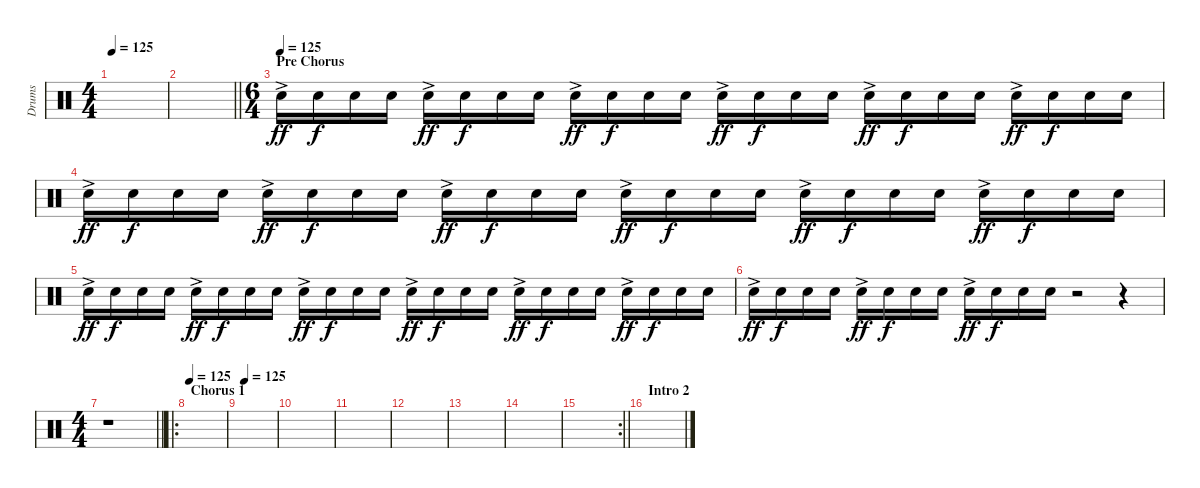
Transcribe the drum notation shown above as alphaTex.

\track ("Drums" "Drums") {instrument percussion}
\staff {score}
\articulation defaults
\ts (4 4)
\tempo 125
\clef neutral
\ks c
|
\barLineRight lightlight
|
\ts (6 4)
\section ("" "Pre Chorus")
\tempo (125)
"Electric Snare (hit)"{ac}.16{dy ff} "Electric Snare (hit)".16{dy f} "Electric Snare (hit)".16 "Electric Snare (hit)".16 "Electric Snare (hit)"{ac}.16{dy ff} "Electric Snare (hit)".16{dy f} "Electric Snare (hit)".16 "Electric Snare (hit)".16 "Electric Snare (hit)"{ac}.16{dy ff} "Electric Snare (hit)".16{dy f} "Electric Snare (hit)".16 "Electric Snare (hit)".16 "Electric Snare (hit)"{ac}.16{dy ff} "Electric Snare (hit)".16{dy f} "Electric Snare (hit)".16 "Electric Snare (hit)".16 "Electric Snare (hit)"{ac}.16{dy ff} "Electric Snare (hit)".16{dy f} "Electric Snare (hit)".16 "Electric Snare (hit)".16 "Electric Snare (hit)"{ac}.16{dy ff} "Electric Snare (hit)".16{dy f} "Electric Snare (hit)".16 "Electric Snare (hit)".16 |
"Electric Snare (hit)"{ac}.16{dy ff} "Electric Snare (hit)".16{dy f} "Electric Snare (hit)".16 "Electric Snare (hit)".16 "Electric Snare (hit)"{ac}.16{dy ff} "Electric Snare (hit)".16{dy f} "Electric Snare (hit)".16 "Electric Snare (hit)".16 "Electric Snare (hit)"{ac}.16{dy ff} "Electric Snare (hit)".16{dy f} "Electric Snare (hit)".16 "Electric Snare (hit)".16 "Electric Snare (hit)"{ac}.16{dy ff} "Electric Snare (hit)".16{dy f} "Electric Snare (hit)".16 "Electric Snare (hit)".16 "Electric Snare (hit)"{ac}.16{dy ff} "Electric Snare (hit)".16{dy f} "Electric Snare (hit)".16 "Electric Snare (hit)".16 "Electric Snare (hit)"{ac}.16{dy ff} "Electric Snare (hit)".16{dy f} "Electric Snare (hit)".16 "Electric Snare (hit)".16 |
"Electric Snare (hit)"{ac}.16{dy ff} "Electric Snare (hit)".16{dy f} "Electric Snare (hit)".16 "Electric Snare (hit)".16 "Electric Snare (hit)"{ac}.16{dy ff} "Electric Snare (hit)".16{dy f} "Electric Snare (hit)".16 "Electric Snare (hit)".16 "Electric Snare (hit)"{ac}.16{dy ff} "Electric Snare (hit)".16{dy f} "Electric Snare (hit)".16 "Electric Snare (hit)".16 "Electric Snare (hit)"{ac}.16{dy ff} "Electric Snare (hit)".16{dy f} "Electric Snare (hit)".16 "Electric Snare (hit)".16 "Electric Snare (hit)"{ac}.16{dy ff} "Electric Snare (hit)".16{dy f} "Electric Snare (hit)".16 "Electric Snare (hit)".16 "Electric Snare (hit)"{ac}.16{dy ff} "Electric Snare (hit)".16{dy f} "Electric Snare (hit)".16 "Electric Snare (hit)".16 |
"Electric Snare (hit)"{ac}.16{dy ff} "Electric Snare (hit)".16{dy f} "Electric Snare (hit)".16 "Electric Snare (hit)".16 "Electric Snare (hit)"{ac}.16{dy ff} "Electric Snare (hit)".16{dy f} "Electric Snare (hit)".16 "Electric Snare (hit)".16 "Electric Snare (hit)"{ac}.16{dy ff} "Electric Snare (hit)".16{dy f} "Electric Snare (hit)".16 "Electric Snare (hit)".16 r.2 r.4 |
\ts (4 4)
\barLineRight lightlight
r.1 |
\ro
\section ("" "Chorus 1")
\tempo 200
\tempo 125
|
\tempo (125 0.125)
|
|
|
|
|
|
\rc 2
\barLineRight lightlight
|
\section ("" "Intro 2")
